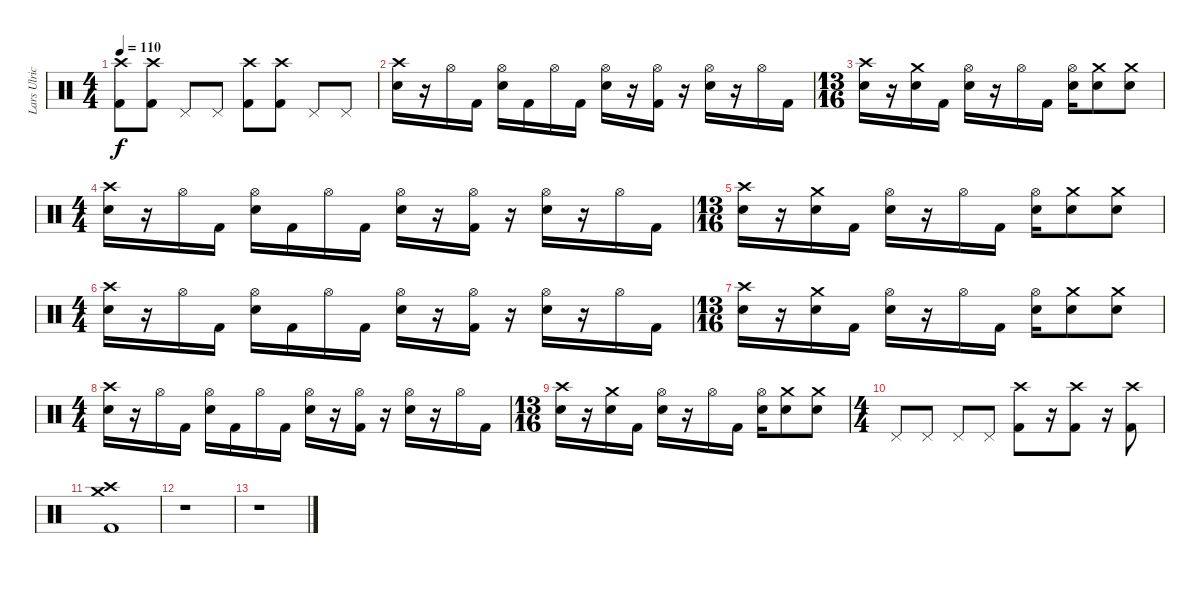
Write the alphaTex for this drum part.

\track ("Lars Ulrich" "Lars Ulric") {instrument percussion}
\staff {score}
\articulation defaults
\ts (4 4)
\tempo 110
\clef neutral
\ks c
("Crash high (hit)" "Kick (hit) 2").8{dy f} ("Crash high (hit)" "Kick (hit) 2").8 "Pedal Hi-Hat (hit)".8 "Pedal Hi-Hat (hit)".8 ("Crash high (hit)" "Kick (hit) 2").8 ("Crash high (hit)" "Kick (hit) 2").8 "Pedal Hi-Hat (hit)".8 "Pedal Hi-Hat (hit)".8 |
("Crash high (hit)" "Snare (hit) 2").16 r.16 "Hi-Hat (open)".16 "Kick (hit) 2".16 ("Hi-Hat (open)" "Snare (hit) 2").16 "Kick (hit) 2".16 "Hi-Hat (open)".16 "Kick (hit) 2".16 ("Hi-Hat (open)" "Snare (hit) 2").16 r.16 ("Hi-Hat (open)" "Kick (hit) 2").16 r.16 ("Hi-Hat (open)" "Snare (hit) 2").16 r.16 "Hi-Hat (open)".16 "Kick (hit) 2".16 |
\ts (13 16)
("Crash high (hit)" "Snare (hit) 2").16 r.16 ("Crash medium (hit)" "Snare (hit) 2").16 "Kick (hit) 2".16 ("Hi-Hat (open)" "Snare (hit) 2").16 r.16 "Hi-Hat (open)".16 "Kick (hit) 2".16 ("Hi-Hat (open)" "Snare (hit) 2").16 ("Crash medium (hit)" "Snare (hit) 2").8 ("Crash medium (hit)" "Snare (hit) 2").8 |
\ts (4 4)
("Crash high (hit)" "Snare (hit) 2").16 r.16 "Hi-Hat (open)".16 "Kick (hit) 2".16 ("Hi-Hat (open)" "Snare (hit) 2").16 "Kick (hit) 2".16 "Hi-Hat (open)".16 "Kick (hit) 2".16 ("Hi-Hat (open)" "Snare (hit) 2").16 r.16 ("Hi-Hat (open)" "Kick (hit) 2").16 r.16 ("Hi-Hat (open)" "Snare (hit) 2").16 r.16 "Hi-Hat (open)".16 "Kick (hit) 2".16 |
\ts (13 16)
("Crash high (hit)" "Snare (hit) 2").16 r.16 ("Crash medium (hit)" "Snare (hit) 2").16 "Kick (hit) 2".16 ("Hi-Hat (open)" "Snare (hit) 2").16 r.16 "Hi-Hat (open)".16 "Kick (hit) 2".16 ("Hi-Hat (open)" "Snare (hit) 2").16 ("Crash medium (hit)" "Snare (hit) 2").8 ("Crash medium (hit)" "Snare (hit) 2").8 |
\ts (4 4)
("Crash high (hit)" "Snare (hit) 2").16 r.16 "Hi-Hat (open)".16 "Kick (hit) 2".16 ("Hi-Hat (open)" "Snare (hit) 2").16 "Kick (hit) 2".16 "Hi-Hat (open)".16 "Kick (hit) 2".16 ("Hi-Hat (open)" "Snare (hit) 2").16 r.16 ("Hi-Hat (open)" "Kick (hit) 2").16 r.16 ("Hi-Hat (open)" "Snare (hit) 2").16 r.16 "Hi-Hat (open)".16 "Kick (hit) 2".16 |
\ts (13 16)
("Crash high (hit)" "Snare (hit) 2").16 r.16 ("Crash medium (hit)" "Snare (hit) 2").16 "Kick (hit) 2".16 ("Hi-Hat (open)" "Snare (hit) 2").16 r.16 "Hi-Hat (open)".16 "Kick (hit) 2".16 ("Hi-Hat (open)" "Snare (hit) 2").16 ("Crash medium (hit)" "Snare (hit) 2").8 ("Crash medium (hit)" "Snare (hit) 2").8 |
\ts (4 4)
("Crash high (hit)" "Snare (hit) 2").16 r.16 "Hi-Hat (open)".16 "Kick (hit) 2".16 ("Hi-Hat (open)" "Snare (hit) 2").16 "Kick (hit) 2".16 "Hi-Hat (open)".16 "Kick (hit) 2".16 ("Hi-Hat (open)" "Snare (hit) 2").16 r.16 ("Hi-Hat (open)" "Kick (hit) 2").16 r.16 ("Hi-Hat (open)" "Snare (hit) 2").16 r.16 "Hi-Hat (open)".16 "Kick (hit) 2".16 |
\ts (13 16)
("Crash high (hit)" "Snare (hit) 2").16 r.16 ("Crash medium (hit)" "Snare (hit) 2").16 "Kick (hit) 2".16 ("Hi-Hat (open)" "Snare (hit) 2").16 r.16 "Hi-Hat (open)".16 "Kick (hit) 2".16 ("Hi-Hat (open)" "Snare (hit) 2").16 ("Crash medium (hit)" "Snare (hit) 2").8 ("Crash medium (hit)" "Snare (hit) 2").8 |
\ts (4 4)
"Pedal Hi-Hat (hit)".8 "Pedal Hi-Hat (hit)".8 "Pedal Hi-Hat (hit)".8 "Pedal Hi-Hat (hit)".8 ("Crash high (hit)" "Kick (hit) 2").8 r.16 ("Crash high (hit)" "Kick (hit) 2").8 r.16 ("Crash high (hit)" "Kick (hit) 2").8 |
("Crash high (hit)" "Crash medium (hit)" "Kick (hit) 2").1 |
r.1 |
r.1
